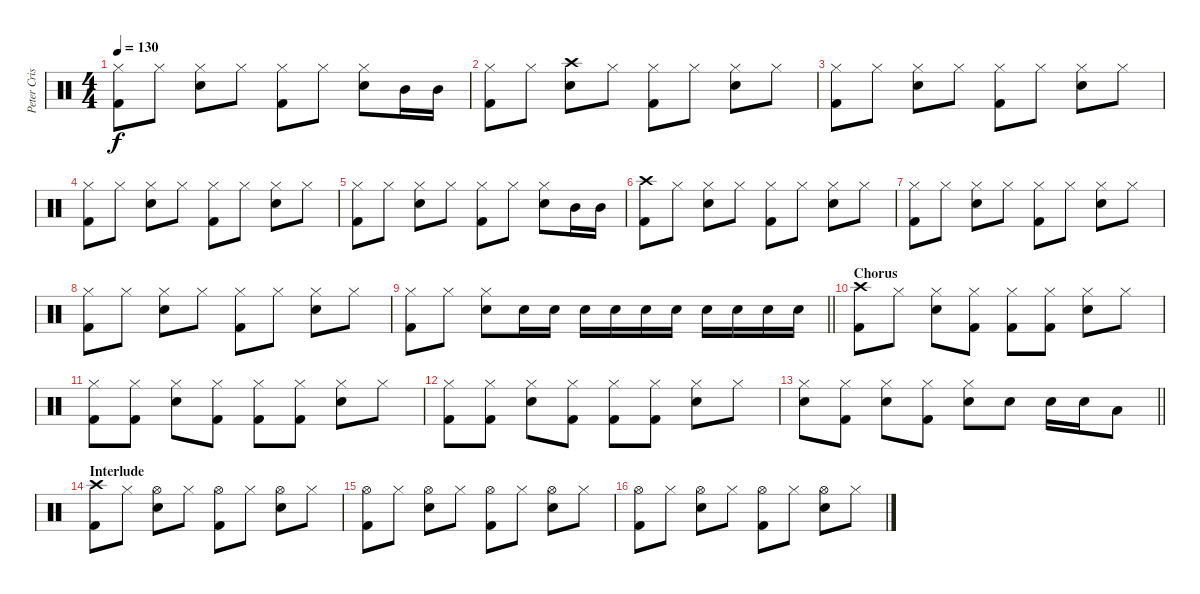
\track ("Peter Criss" "Peter Cris") {instrument percussion}
\staff {score}
\articulation defaults
\ts (4 4)
\tempo 130
\clef neutral
\ks c
("Hi-Hat (closed)" "Kick (hit) 2").8{dy f} "Hi-Hat (closed)".8 ("Hi-Hat (closed)" "Snare (hit) 2").8 "Hi-Hat (closed)".8 ("Hi-Hat (closed)" "Kick (hit) 2").8 "Hi-Hat (closed)".8 ("Hi-Hat (closed)" "Snare (hit) 2").8 "Mid Tom (hit)".16 "Mid Tom (hit)".16 |
("Hi-Hat (closed)" "Kick (hit) 2").8 "Hi-Hat (closed)".8 ("Crash high (hit)" "Snare (hit) 2").8 "Hi-Hat (closed)".8 ("Hi-Hat (closed)" "Kick (hit) 2").8 "Hi-Hat (closed)".8 ("Hi-Hat (closed)" "Snare (hit) 2").8 "Hi-Hat (closed)".8 |
("Hi-Hat (closed)" "Kick (hit) 2").8 "Hi-Hat (closed)".8 ("Hi-Hat (closed)" "Snare (hit) 2").8 "Hi-Hat (closed)".8 ("Hi-Hat (closed)" "Kick (hit) 2").8 "Hi-Hat (closed)".8 ("Hi-Hat (closed)" "Snare (hit) 2").8 "Hi-Hat (closed)".8 |
("Hi-Hat (closed)" "Kick (hit) 2").8 "Hi-Hat (closed)".8 ("Hi-Hat (closed)" "Snare (hit) 2").8 "Hi-Hat (closed)".8 ("Hi-Hat (closed)" "Kick (hit) 2").8 "Hi-Hat (closed)".8 ("Hi-Hat (closed)" "Snare (hit) 2").8 "Hi-Hat (closed)".8 |
("Hi-Hat (closed)" "Kick (hit) 2").8 "Hi-Hat (closed)".8 ("Hi-Hat (closed)" "Snare (hit) 2").8 "Hi-Hat (closed)".8 ("Hi-Hat (closed)" "Kick (hit) 2").8 "Hi-Hat (closed)".8 ("Hi-Hat (closed)" "Snare (hit) 2").8 "Mid Tom (hit)".16 "Mid Tom (hit)".16 |
("Crash high (hit)" "Kick (hit) 2").8 "Hi-Hat (closed)".8 ("Hi-Hat (closed)" "Snare (hit) 2").8 "Hi-Hat (closed)".8 ("Hi-Hat (closed)" "Kick (hit) 2").8 "Hi-Hat (closed)".8 ("Hi-Hat (closed)" "Snare (hit) 2").8 "Hi-Hat (closed)".8 |
("Hi-Hat (closed)" "Kick (hit) 2").8 "Hi-Hat (closed)".8 ("Hi-Hat (closed)" "Snare (hit) 2").8 "Hi-Hat (closed)".8 ("Hi-Hat (closed)" "Kick (hit) 2").8 "Hi-Hat (closed)".8 ("Hi-Hat (closed)" "Snare (hit) 2").8 "Hi-Hat (closed)".8 |
("Hi-Hat (closed)" "Kick (hit) 2").8 "Hi-Hat (closed)".8 ("Hi-Hat (closed)" "Snare (hit) 2").8 "Hi-Hat (closed)".8 ("Hi-Hat (closed)" "Kick (hit) 2").8 "Hi-Hat (closed)".8 ("Hi-Hat (closed)" "Snare (hit) 2").8 "Hi-Hat (closed)".8 |
\barLineRight lightlight
("Hi-Hat (closed)" "Kick (hit) 2").8 "Hi-Hat (closed)".8 ("Hi-Hat (closed)" "Snare (hit) 2").8 "Snare (hit) 2".16 "Snare (hit) 2".16 "Snare (hit) 2".16 "Snare (hit) 2".16 "Snare (hit) 2".16 "Snare (hit) 2".16 "Snare (hit) 2".16 "Snare (hit) 2".16 "Snare (hit) 2".16 "Snare (hit) 2".16 |
\section ("" "Chorus")
("Crash high (hit)" "Kick (hit) 2").8 "Hi-Hat (closed)".8 ("Hi-Hat (closed)" "Snare (hit) 2").8 ("Hi-Hat (closed)" "Kick (hit) 2").8 ("Hi-Hat (closed)" "Kick (hit) 2").8 ("Hi-Hat (closed)" "Kick (hit) 2").8 ("Hi-Hat (closed)" "Snare (hit) 2").8 "Hi-Hat (closed)".8 |
("Hi-Hat (closed)" "Kick (hit) 2").8 ("Hi-Hat (closed)" "Kick (hit) 2").8 ("Hi-Hat (closed)" "Snare (hit) 2").8 ("Hi-Hat (closed)" "Kick (hit) 2").8 ("Hi-Hat (closed)" "Kick (hit) 2").8 ("Hi-Hat (closed)" "Kick (hit) 2").8 ("Hi-Hat (closed)" "Snare (hit) 2").8 "Hi-Hat (closed)".8 |
("Hi-Hat (closed)" "Kick (hit) 2").8 ("Hi-Hat (closed)" "Kick (hit) 2").8 ("Hi-Hat (closed)" "Snare (hit) 2").8 ("Hi-Hat (closed)" "Kick (hit) 2").8 ("Hi-Hat (closed)" "Kick (hit) 2").8 ("Hi-Hat (closed)" "Kick (hit) 2").8 ("Hi-Hat (closed)" "Snare (hit) 2").8 "Hi-Hat (closed)".8 |
\barLineRight lightlight
("Hi-Hat (closed)" "Snare (hit) 2").8 ("Hi-Hat (closed)" "Kick (hit) 2").8 ("Hi-Hat (closed)" "Snare (hit) 2").8 ("Hi-Hat (closed)" "Kick (hit) 2").8 ("Hi-Hat (closed)" "Snare (hit) 2").8 "Snare (hit) 2".8 "Snare (hit) 2".16 "Snare (hit) 2".16 "Low Tom (hit)".8 |
\section ("" "Interlude")
("Crash high (hit)" "Kick (hit) 2").8 "Hi-Hat (closed)".8 ("Hi-Hat (open)" "Snare (hit) 2").8 "Hi-Hat (closed)".8 ("Hi-Hat (open)" "Kick (hit) 2").8 "Hi-Hat (closed)".8 ("Hi-Hat (open)" "Snare (hit) 2").8 "Hi-Hat (closed)".8 |
("Hi-Hat (open)" "Kick (hit) 2").8 "Hi-Hat (closed)".8 ("Hi-Hat (open)" "Snare (hit) 2").8 "Hi-Hat (closed)".8 ("Hi-Hat (open)" "Kick (hit) 2").8 "Hi-Hat (closed)".8 ("Hi-Hat (open)" "Snare (hit) 2").8 "Hi-Hat (closed)".8 |
("Hi-Hat (open)" "Kick (hit) 2").8 "Hi-Hat (closed)".8 ("Hi-Hat (open)" "Snare (hit) 2").8 "Hi-Hat (closed)".8 ("Hi-Hat (open)" "Kick (hit) 2").8 "Hi-Hat (closed)".8 ("Hi-Hat (open)" "Snare (hit) 2").8 "Hi-Hat (closed)".8
